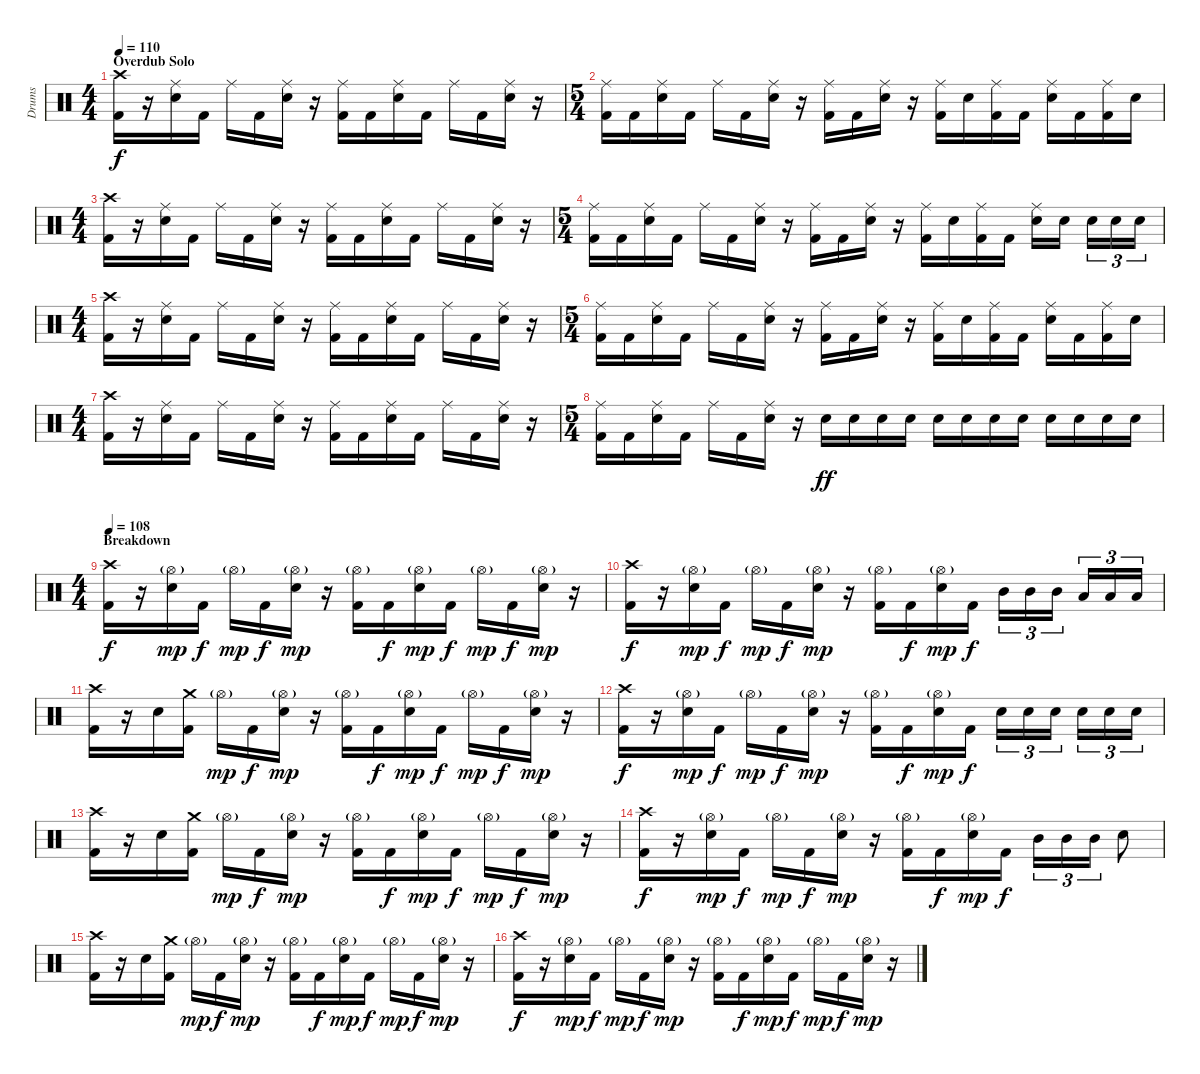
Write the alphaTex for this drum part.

\track ("Drums" "Drums") {instrument percussion}
\staff {score}
\articulation defaults
\ts (4 4)
\section ("" "Overdub Solo")
\tempo 110
\clef neutral
\ks c
("Crash high (hit)" "Kick (hit) 2").16{dy f} r.16 ("Ride (middle)" "Electric Snare (hit)").16 "Kick (hit) 2".16 "Ride (middle)".16 "Kick (hit) 2".16 ("Ride (middle)" "Electric Snare (hit)").16 r.16 ("Ride (middle)" "Kick (hit) 2").16 "Kick (hit) 2".16 ("Ride (middle)" "Electric Snare (hit)").16 "Kick (hit) 2".16 "Ride (middle)".16 "Kick (hit) 2".16 ("Ride (middle)" "Electric Snare (hit)").16 r.16 |
\ts (5 4)
("Ride (middle)" "Kick (hit) 2").16 "Kick (hit) 2".16 ("Ride (middle)" "Electric Snare (hit)").16 "Kick (hit) 2".16 "Ride (middle)".16 "Kick (hit) 2".16 ("Ride (middle)" "Electric Snare (hit)").16 r.16 ("Ride (middle)" "Kick (hit) 2").16 "Kick (hit) 2".16 ("Ride (middle)" "Electric Snare (hit)").16 r.16 ("Ride (middle)" "Kick (hit) 2").16 "Electric Snare (hit)".16 ("Ride (middle)" "Kick (hit) 2").16 "Kick (hit) 2".16 ("Ride (middle)" "Electric Snare (hit)").16 "Kick (hit) 2".16 ("Ride (middle)" "Kick (hit) 2").16 "Electric Snare (hit)".16 |
\ts (4 4)
("Crash high (hit)" "Kick (hit) 2").16 r.16 ("Ride (middle)" "Electric Snare (hit)").16 "Kick (hit) 2".16 "Ride (middle)".16 "Kick (hit) 2".16 ("Ride (middle)" "Electric Snare (hit)").16 r.16 ("Ride (middle)" "Kick (hit) 2").16 "Kick (hit) 2".16 ("Ride (middle)" "Electric Snare (hit)").16 "Kick (hit) 2".16 "Ride (middle)".16 "Kick (hit) 2".16 ("Ride (middle)" "Electric Snare (hit)").16 r.16 |
\ts (5 4)
("Ride (middle)" "Kick (hit) 2").16 "Kick (hit) 2".16 ("Ride (middle)" "Electric Snare (hit)").16 "Kick (hit) 2".16 "Ride (middle)".16 "Kick (hit) 2".16 ("Ride (middle)" "Electric Snare (hit)").16 r.16 ("Ride (middle)" "Kick (hit) 2").16 "Kick (hit) 2".16 ("Ride (middle)" "Electric Snare (hit)").16 r.16 ("Ride (middle)" "Kick (hit) 2").16 "Electric Snare (hit)".16 ("Ride (middle)" "Kick (hit) 2").16 "Kick (hit) 2".16 ("Ride (middle)" "Electric Snare (hit)").16 "Electric Snare (hit)".16 "Electric Snare (hit)".16{tu (3 2)} "Electric Snare (hit)".16{tu (3 2)} "Electric Snare (hit)".16{tu (3 2)} |
\ts (4 4)
("Crash high (hit)" "Kick (hit) 2").16 r.16 ("Ride (middle)" "Electric Snare (hit)").16 "Kick (hit) 2".16 "Ride (middle)".16 "Kick (hit) 2".16 ("Ride (middle)" "Electric Snare (hit)").16 r.16 ("Ride (middle)" "Kick (hit) 2").16 "Kick (hit) 2".16 ("Ride (middle)" "Electric Snare (hit)").16 "Kick (hit) 2".16 "Ride (middle)".16 "Kick (hit) 2".16 ("Ride (middle)" "Electric Snare (hit)").16 r.16 |
\ts (5 4)
("Ride (middle)" "Kick (hit) 2").16 "Kick (hit) 2".16 ("Ride (middle)" "Electric Snare (hit)").16 "Kick (hit) 2".16 "Ride (middle)".16 "Kick (hit) 2".16 ("Ride (middle)" "Electric Snare (hit)").16 r.16 ("Ride (middle)" "Kick (hit) 2").16 "Kick (hit) 2".16 ("Ride (middle)" "Electric Snare (hit)").16 r.16 ("Ride (middle)" "Kick (hit) 2").16 "Electric Snare (hit)".16 ("Ride (middle)" "Kick (hit) 2").16 "Kick (hit) 2".16 ("Ride (middle)" "Electric Snare (hit)").16 "Kick (hit) 2".16 ("Ride (middle)" "Kick (hit) 2").16 "Electric Snare (hit)".16 |
\ts (4 4)
("Crash high (hit)" "Kick (hit) 2").16 r.16 ("Ride (middle)" "Electric Snare (hit)").16 "Kick (hit) 2".16 "Ride (middle)".16 "Kick (hit) 2".16 ("Ride (middle)" "Electric Snare (hit)").16 r.16 ("Ride (middle)" "Kick (hit) 2").16 "Kick (hit) 2".16 ("Ride (middle)" "Electric Snare (hit)").16 "Kick (hit) 2".16 "Ride (middle)".16 "Kick (hit) 2".16 ("Ride (middle)" "Electric Snare (hit)").16 r.16 |
\ts (5 4)
("Ride (middle)" "Kick (hit) 2").16 "Kick (hit) 2".16 ("Ride (middle)" "Electric Snare (hit)").16 "Kick (hit) 2".16 "Ride (middle)".16 "Kick (hit) 2".16 ("Ride (middle)" "Electric Snare (hit)").16 r.16 "Electric Snare (hit)".16{dy ff} "Electric Snare (hit)".16 "Electric Snare (hit)".16 "Electric Snare (hit)".16 "Electric Snare (hit)".16 "Electric Snare (hit)".16 "Electric Snare (hit)".16 "Electric Snare (hit)".16 "Electric Snare (hit)".16 "Electric Snare (hit)".16 "Electric Snare (hit)".16 "Electric Snare (hit)".16 |
\ts (4 4)
\section ("" "Breakdown")
\tempo 108
("Crash high (hit)" "Kick (hit) 2").16{dy f} r.16 ("Hi-Hat (open)"{g} "Electric Snare (hit)").16{dy mp} "Kick (hit) 2".16{dy f} "Hi-Hat (open)"{g}.16{dy mp} "Kick (hit) 2".16{dy f} ("Hi-Hat (open)"{g} "Electric Snare (hit)").16{dy mp} r.16 ("Hi-Hat (open)"{g} "Kick (hit) 2").16 "Kick (hit) 2".16{dy f} ("Hi-Hat (open)"{g} "Electric Snare (hit)").16{dy mp} "Kick (hit) 2".16{dy f} "Hi-Hat (open)"{g}.16{dy mp} "Kick (hit) 2".16{dy f} ("Hi-Hat (open)"{g} "Electric Snare (hit)").16{dy mp} r.16 |
("Crash high (hit)" "Kick (hit) 2").16{dy f} r.16 ("Hi-Hat (open)"{g} "Electric Snare (hit)").16{dy mp} "Kick (hit) 2".16{dy f} "Hi-Hat (open)"{g}.16{dy mp} "Kick (hit) 2".16{dy f} ("Hi-Hat (open)"{g} "Electric Snare (hit)").16{dy mp} r.16 ("Hi-Hat (open)"{g} "Kick (hit) 2").16 "Kick (hit) 2".16{dy f} ("Hi-Hat (open)"{g} "Electric Snare (hit)").16{dy mp} "Kick (hit) 2".16{dy f} "Mid Tom (hit)".16{tu (3 2)} "Mid Tom (hit)".16{tu (3 2)} "Mid Tom (hit)".16{tu (3 2)} "Low Tom (hit)".16{tu (3 2)} "Low Tom (hit)".16{tu (3 2)} "Low Tom (hit)".16{tu (3 2)} |
("Crash high (hit)" "Kick (hit) 2").16 r.16 "Electric Snare (hit)".16 ("Crash medium (hit)" "Kick (hit) 2").16 "Hi-Hat (open)"{g}.16{dy mp} "Kick (hit) 2".16{dy f} ("Hi-Hat (open)"{g} "Electric Snare (hit)").16{dy mp} r.16 ("Hi-Hat (open)"{g} "Kick (hit) 2").16 "Kick (hit) 2".16{dy f} ("Hi-Hat (open)"{g} "Electric Snare (hit)").16{dy mp} "Kick (hit) 2".16{dy f} "Hi-Hat (open)"{g}.16{dy mp} "Kick (hit) 2".16{dy f} ("Hi-Hat (open)"{g} "Electric Snare (hit)").16{dy mp} r.16 |
("Crash high (hit)" "Kick (hit) 2").16{dy f} r.16 ("Hi-Hat (open)"{g} "Electric Snare (hit)").16{dy mp} "Kick (hit) 2".16{dy f} "Hi-Hat (open)"{g}.16{dy mp} "Kick (hit) 2".16{dy f} ("Hi-Hat (open)"{g} "Electric Snare (hit)").16{dy mp} r.16 ("Hi-Hat (open)"{g} "Kick (hit) 2").16 "Kick (hit) 2".16{dy f} ("Hi-Hat (open)"{g} "Electric Snare (hit)").16{dy mp} "Kick (hit) 2".16{dy f} "Electric Snare (hit)".16{tu (3 2)} "Electric Snare (hit)".16{tu (3 2)} "Electric Snare (hit)".16{tu (3 2)} "Electric Snare (hit)".16{tu (3 2)} "Electric Snare (hit)".16{tu (3 2)} "Electric Snare (hit)".16{tu (3 2)} |
("Crash high (hit)" "Kick (hit) 2").16 r.16 "Electric Snare (hit)".16 ("Crash medium (hit)" "Kick (hit) 2").16 "Hi-Hat (open)"{g}.16{dy mp} "Kick (hit) 2".16{dy f} ("Hi-Hat (open)"{g} "Electric Snare (hit)").16{dy mp} r.16 ("Hi-Hat (open)"{g} "Kick (hit) 2").16 "Kick (hit) 2".16{dy f} ("Hi-Hat (open)"{g} "Electric Snare (hit)").16{dy mp} "Kick (hit) 2".16{dy f} "Hi-Hat (open)"{g}.16{dy mp} "Kick (hit) 2".16{dy f} ("Hi-Hat (open)"{g} "Electric Snare (hit)").16{dy mp} r.16 |
("Crash high (hit)" "Kick (hit) 2").16{dy f} r.16 ("Hi-Hat (open)"{g} "Electric Snare (hit)").16{dy mp} "Kick (hit) 2".16{dy f} "Hi-Hat (open)"{g}.16{dy mp} "Kick (hit) 2".16{dy f} ("Hi-Hat (open)"{g} "Electric Snare (hit)").16{dy mp} r.16 ("Hi-Hat (open)"{g} "Kick (hit) 2").16 "Kick (hit) 2".16{dy f} ("Hi-Hat (open)"{g} "Electric Snare (hit)").16{dy mp} "Kick (hit) 2".16{dy f} "Mid Tom (hit)".16{tu (3 2)} "Mid Tom (hit)".16{tu (3 2)} "Mid Tom (hit)".16{tu (3 2)} "Electric Snare (hit)".8 |
("Crash high (hit)" "Kick (hit) 2").16 r.16 "Electric Snare (hit)".16 ("Crash medium (hit)" "Kick (hit) 2").16 "Hi-Hat (open)"{g}.16{dy mp} "Kick (hit) 2".16{dy f} ("Hi-Hat (open)"{g} "Electric Snare (hit)").16{dy mp} r.16 ("Hi-Hat (open)"{g} "Kick (hit) 2").16 "Kick (hit) 2".16{dy f} ("Hi-Hat (open)"{g} "Electric Snare (hit)").16{dy mp} "Kick (hit) 2".16{dy f} "Hi-Hat (open)"{g}.16{dy mp} "Kick (hit) 2".16{dy f} ("Hi-Hat (open)"{g} "Electric Snare (hit)").16{dy mp} r.16 |
("Crash high (hit)" "Kick (hit) 2").16{dy f} r.16 ("Hi-Hat (open)"{g} "Electric Snare (hit)").16{dy mp} "Kick (hit) 2".16{dy f} "Hi-Hat (open)"{g}.16{dy mp} "Kick (hit) 2".16{dy f} ("Hi-Hat (open)"{g} "Electric Snare (hit)").16{dy mp} r.16 ("Hi-Hat (open)"{g} "Kick (hit) 2").16 "Kick (hit) 2".16{dy f} ("Hi-Hat (open)"{g} "Electric Snare (hit)").16{dy mp} "Kick (hit) 2".16{dy f} "Hi-Hat (open)"{g}.16{dy mp} "Kick (hit) 2".16{dy f} ("Hi-Hat (open)"{g} "Electric Snare (hit)").16{dy mp} r.16
